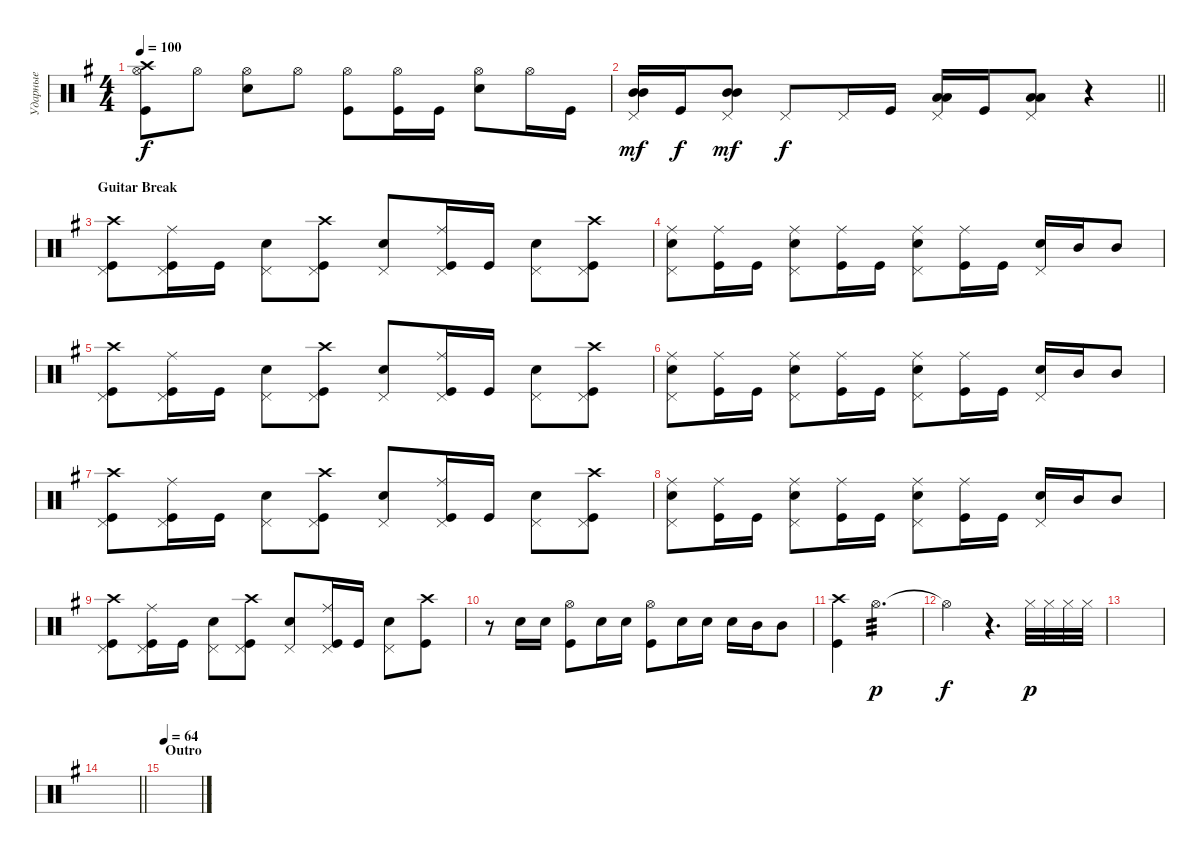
\track ("Ударные" "Ударные") {instrument percussion}
\staff {score}
\articulation defaults
\ts (4 4)
\tempo 100
\clef neutral
\ks eminor
("Hi-Hat (open)" "Crash high (hit)" "Kick (hit)").8{dy f} "Hi-Hat (open)".8 ("Hi-Hat (open)" "Snare (hit) 2").8 "Hi-Hat (open)".8 ("Hi-Hat (open)" "Kick (hit)").8 ("Hi-Hat (open)" "Kick (hit)").16 "Kick (hit)".16 ("Hi-Hat (open)" "Snare (hit) 2").8 "Hi-Hat (open)".16 "Kick (hit)".16 |
\barLineRight lightlight
("Mid Tom (hit)" "Mid Tom (hit)" "Pedal Hi-Hat (hit)").16{bd 120 dy mf} "Kick (hit)".16{dy f} ("Pedal Hi-Hat (hit)" "Mid Tom (hit)" "Mid Tom (hit)").8{bd 120 dy mf} "Pedal Hi-Hat (hit)".8{dy f} "Pedal Hi-Hat (hit)".16 "Kick (hit)".16 ("Low Tom (hit)" "Low Tom (hit)" "Pedal Hi-Hat (hit)").16{bd 120} "Kick (hit)".16 ("Low Tom (hit)" "Low Tom (hit)" "Pedal Hi-Hat (hit)").8{bd 120} r.4 |
\section ("" "Guitar Break")
("Kick (hit)" "Crash high (hit)" "Pedal Hi-Hat (hit)").8 ("Kick (hit)" "Pedal Hi-Hat (hit)" "Ride (middle)").16 "Kick (hit)".16 ("Snare (hit) 2" "Pedal Hi-Hat (hit)").8 ("Kick (hit)" "Crash high (hit)" "Pedal Hi-Hat (hit)").8 ("Pedal Hi-Hat (hit)" "Snare (hit) 2").8 ("Kick (hit)" "Ride (middle)" "Pedal Hi-Hat (hit)").16 "Kick (hit)".16 ("Snare (hit) 2" "Pedal Hi-Hat (hit)").8 ("Kick (hit)" "Crash high (hit)" "Pedal Hi-Hat (hit)").8 |
("Pedal Hi-Hat (hit)" "Snare (hit) 2" "Ride (middle)").8 ("Kick (hit)" "Ride (middle)").16 "Kick (hit)".16 ("Snare (hit) 2" "Pedal Hi-Hat (hit)" "Ride (middle)").8 ("Kick (hit)" "Ride (middle)").16 "Kick (hit)".16 ("Pedal Hi-Hat (hit)" "Ride (middle)" "Snare (hit) 2").8 ("Kick (hit)" "Ride (middle)").16 "Kick (hit)".16 ("Pedal Hi-Hat (hit)" "Snare (hit) 2").16 "Mid Tom (hit)".16 "Mid Tom (hit)".8 |
("Kick (hit)" "Crash high (hit)" "Pedal Hi-Hat (hit)").8 ("Kick (hit)" "Pedal Hi-Hat (hit)" "Ride (middle)").16 "Kick (hit)".16 ("Snare (hit) 2" "Pedal Hi-Hat (hit)").8 ("Kick (hit)" "Crash high (hit)" "Pedal Hi-Hat (hit)").8 ("Pedal Hi-Hat (hit)" "Snare (hit) 2").8 ("Kick (hit)" "Ride (middle)" "Pedal Hi-Hat (hit)").16 "Kick (hit)".16 ("Snare (hit) 2" "Pedal Hi-Hat (hit)").8 ("Kick (hit)" "Crash high (hit)" "Pedal Hi-Hat (hit)").8 |
("Pedal Hi-Hat (hit)" "Snare (hit) 2" "Ride (middle)").8 ("Kick (hit)" "Ride (middle)").16 "Kick (hit)".16 ("Snare (hit) 2" "Pedal Hi-Hat (hit)" "Ride (middle)").8 ("Kick (hit)" "Ride (middle)").16 "Kick (hit)".16 ("Pedal Hi-Hat (hit)" "Ride (middle)" "Snare (hit) 2").8 ("Kick (hit)" "Ride (middle)").16 "Kick (hit)".16 ("Pedal Hi-Hat (hit)" "Snare (hit) 2").16 "Mid Tom (hit)".16 "Mid Tom (hit)".8 |
("Kick (hit)" "Crash high (hit)" "Pedal Hi-Hat (hit)").8 ("Kick (hit)" "Pedal Hi-Hat (hit)" "Ride (middle)").16 "Kick (hit)".16 ("Snare (hit) 2" "Pedal Hi-Hat (hit)").8 ("Kick (hit)" "Crash high (hit)" "Pedal Hi-Hat (hit)").8 ("Pedal Hi-Hat (hit)" "Snare (hit) 2").8 ("Kick (hit)" "Ride (middle)" "Pedal Hi-Hat (hit)").16 "Kick (hit)".16 ("Snare (hit) 2" "Pedal Hi-Hat (hit)").8 ("Kick (hit)" "Crash high (hit)" "Pedal Hi-Hat (hit)").8 |
("Pedal Hi-Hat (hit)" "Snare (hit) 2" "Ride (middle)").8 ("Kick (hit)" "Ride (middle)").16 "Kick (hit)".16 ("Snare (hit) 2" "Pedal Hi-Hat (hit)" "Ride (middle)").8 ("Kick (hit)" "Ride (middle)").16 "Kick (hit)".16 ("Pedal Hi-Hat (hit)" "Ride (middle)" "Snare (hit) 2").8 ("Kick (hit)" "Ride (middle)").16 "Kick (hit)".16 ("Pedal Hi-Hat (hit)" "Snare (hit) 2").16 "Mid Tom (hit)".16 "Mid Tom (hit)".8 |
("Kick (hit)" "Crash high (hit)" "Pedal Hi-Hat (hit)").8 ("Kick (hit)" "Pedal Hi-Hat (hit)" "Ride (middle)").16 "Kick (hit)".16 ("Snare (hit) 2" "Pedal Hi-Hat (hit)").8 ("Kick (hit)" "Crash high (hit)" "Pedal Hi-Hat (hit)").8 ("Pedal Hi-Hat (hit)" "Snare (hit) 2").8 ("Kick (hit)" "Ride (middle)" "Pedal Hi-Hat (hit)").16 "Kick (hit)".16 ("Snare (hit) 2" "Pedal Hi-Hat (hit)").8 ("Kick (hit)" "Crash high (hit)").8 |
r.8 "Snare (hit) 2".16 "Snare (hit) 2".16 ("Kick (hit)" "Hi-Hat (open)").8 "Snare (hit) 2".16 "Snare (hit) 2".16 ("Kick (hit)" "Hi-Hat (open)").8 "Snare (hit) 2".16 "Snare (hit) 2".16 "Snare (hit) 2".16 "Mid Tom (hit)".16 "Mid Tom (hit)".8 |
("Kick (hit)" "Crash high (hit)").4 "Hi-Hat (open)".2{d tp 3 dy p} |
"Hi-Hat (open)"{t}.2{dy f} r.4{d} "Hi-Hat (closed)".32{dy p} "Hi-Hat (closed)".32 "Hi-Hat (closed)".32 "Hi-Hat (closed)".32 |
|
\barLineRight lightlight
|
\section ("" "Outro")
\tempo 64
